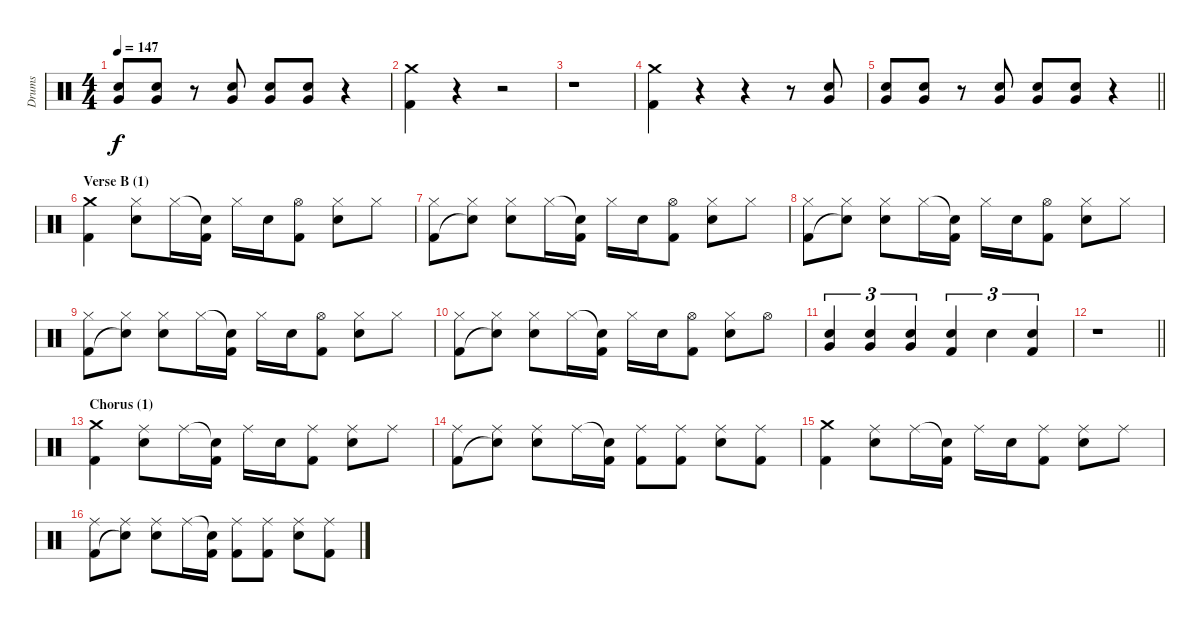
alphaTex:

\track ("Drums" "Drums") {instrument percussion}
\staff {score}
\articulation defaults
\ts (4 4)
\tempo 147
\clef neutral
\ks aminor
("Electric Snare (hit)" "Very Low Tom (hit)").8{dy f} ("Electric Snare (hit)" "Very Low Tom (hit)").8 r.8 ("Electric Snare (hit)" "Very Low Tom (hit)").8 ("Electric Snare (hit)" "Very Low Tom (hit)").8 ("Electric Snare (hit)" "Very Low Tom (hit)").8 r.4 |
("Crash medium (hit)" "Kick (hit) 2").4 r.4 r.2 |
r.1 |
("Crash medium (hit)" "Kick (hit) 2").4 r.4 r.4 r.8 ("Electric Snare (hit)" "Very Low Tom (hit)").8 |
\barLineRight lightlight
("Electric Snare (hit)" "Very Low Tom (hit)").8 ("Electric Snare (hit)" "Very Low Tom (hit)").8 r.8 ("Electric Snare (hit)" "Very Low Tom (hit)").8 ("Electric Snare (hit)" "Very Low Tom (hit)").8 ("Electric Snare (hit)" "Very Low Tom (hit)").8 r.4 |
\section ("" "Verse B (1)")
("Crash medium (hit)" "Kick (hit) 2").4 ("Hi-Hat (closed)" "Electric Snare (hit)").8 "Hi-Hat (closed)".16 ("Snare (hit)"{t} "Kick (hit) 2").16 "Hi-Hat (closed)".16 "Electric Snare (hit)".16 ("Hi-Hat (open)" "Kick (hit) 2").8 ("Hi-Hat (closed)" "Electric Snare (hit)").8 "Hi-Hat (closed)".8 |
("Hi-Hat (closed)" "Kick (hit) 2").8 ("Hi-Hat (closed)" "Snare (hit)"{t}).8 ("Hi-Hat (closed)" "Electric Snare (hit)").8 "Hi-Hat (closed)".16 ("Snare (hit)"{t} "Kick (hit) 2").16 "Hi-Hat (closed)".16 "Electric Snare (hit)".16 ("Hi-Hat (open)" "Kick (hit) 2").8 ("Hi-Hat (closed)" "Electric Snare (hit)").8 "Hi-Hat (closed)".8 |
("Hi-Hat (closed)" "Kick (hit) 2").8 ("Hi-Hat (closed)" "Snare (hit)"{t}).8 ("Hi-Hat (closed)" "Electric Snare (hit)").8 "Hi-Hat (closed)".16 ("Snare (hit)"{t} "Kick (hit) 2").16 "Hi-Hat (closed)".16 "Electric Snare (hit)".16 ("Hi-Hat (open)" "Kick (hit) 2").8 ("Hi-Hat (closed)" "Electric Snare (hit)").8 "Hi-Hat (closed)".8 |
("Hi-Hat (closed)" "Kick (hit) 2").8 ("Hi-Hat (closed)" "Snare (hit)"{t}).8 ("Hi-Hat (closed)" "Electric Snare (hit)").8 "Hi-Hat (closed)".16 ("Snare (hit)"{t} "Kick (hit) 2").16 "Hi-Hat (closed)".16 "Electric Snare (hit)".16 ("Hi-Hat (open)" "Kick (hit) 2").8 ("Hi-Hat (closed)" "Electric Snare (hit)").8 "Hi-Hat (closed)".8 |
("Hi-Hat (closed)" "Kick (hit) 2").8 ("Hi-Hat (closed)" "Snare (hit)"{t}).8 ("Hi-Hat (closed)" "Electric Snare (hit)").8 "Hi-Hat (closed)".16 ("Snare (hit)"{t} "Kick (hit) 2").16 "Hi-Hat (closed)".16 "Electric Snare (hit)".16 ("Hi-Hat (open)" "Kick (hit) 2").8 ("Hi-Hat (closed)" "Electric Snare (hit)").8 "Hi-Hat (open)".8 |
("Electric Snare (hit)" "Very Low Tom (hit)").4{tu (3 2)} ("Electric Snare (hit)" "Very Low Tom (hit)").4{tu (3 2)} ("Electric Snare (hit)" "Very Low Tom (hit)").4{tu (3 2)} ("Electric Snare (hit)" "Kick (hit) 2").4{tu (3 2)} "Electric Snare (hit)".4{tu (3 2)} ("Electric Snare (hit)" "Kick (hit) 2").4{tu (3 2)} |
\barLineRight lightlight
r.1 |
\section ("" "Chorus (1)")
("Crash medium (hit)" "Kick (hit) 2").4 ("Ride (middle)" "Electric Snare (hit)").8 "Ride (middle)".16 ("Snare (hit)"{t} "Kick (hit) 2").16 "Ride (middle)".16 "Electric Snare (hit)".16 ("Ride (middle)" "Kick (hit) 2").8 ("Ride (middle)" "Electric Snare (hit)").8 "Ride (middle)".8 |
("Ride (middle)" "Kick (hit) 2").8 ("Ride (middle)" "Snare (hit)"{t}).8 ("Ride (middle)" "Electric Snare (hit)").8 "Ride (middle)".16 ("Snare (hit)"{t} "Kick (hit) 2").16 ("Ride (middle)" "Kick (hit) 2").8 ("Ride (middle)" "Kick (hit) 2").8 ("Ride (middle)" "Electric Snare (hit)").8 ("Ride (middle)" "Kick (hit) 2").8 |
("Crash medium (hit)" "Kick (hit) 2").4 ("Ride (middle)" "Electric Snare (hit)").8 "Ride (middle)".16 ("Snare (hit)"{t} "Kick (hit) 2").16 "Ride (middle)".16 "Electric Snare (hit)".16 ("Ride (middle)" "Kick (hit) 2").8 ("Ride (middle)" "Electric Snare (hit)").8 "Ride (middle)".8 |
("Ride (middle)" "Kick (hit) 2").8 ("Ride (middle)" "Snare (hit)"{t}).8 ("Ride (middle)" "Electric Snare (hit)").8 "Ride (middle)".16 ("Snare (hit)"{t} "Kick (hit) 2").16 ("Ride (middle)" "Kick (hit) 2").8 ("Ride (middle)" "Kick (hit) 2").8 ("Ride (middle)" "Electric Snare (hit)").8 ("Ride (middle)" "Kick (hit) 2").8
